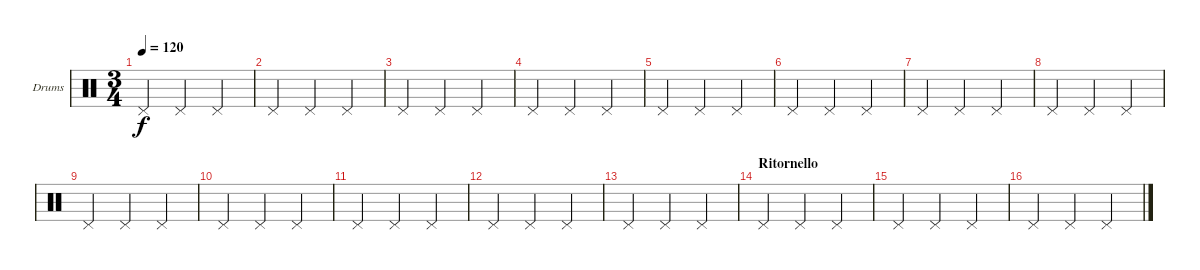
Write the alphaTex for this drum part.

\bracketExtendMode groupsimilarinstruments
\firstSystemTrackNameOrientation horizontal
\otherSystemsTrackNameOrientation horizontal
\track ("Drumkit" "Drums") {instrument percussion}
\staff {score}
\articulation defaults
\ts (3 4)
\tempo 120
\clef neutral
\ks c "Pedal Hi-Hat (hit)".4{dy f} "Pedal Hi-Hat (hit)".4 "Pedal Hi-Hat (hit)".4
|
"Pedal Hi-Hat (hit)".4 "Pedal Hi-Hat (hit)".4 "Pedal Hi-Hat (hit)".4 |
"Pedal Hi-Hat (hit)".4 "Pedal Hi-Hat (hit)".4 "Pedal Hi-Hat (hit)".4 |
"Pedal Hi-Hat (hit)".4 "Pedal Hi-Hat (hit)".4 "Pedal Hi-Hat (hit)".4 |
"Pedal Hi-Hat (hit)".4 "Pedal Hi-Hat (hit)".4 "Pedal Hi-Hat (hit)".4 |
"Pedal Hi-Hat (hit)".4 "Pedal Hi-Hat (hit)".4 "Pedal Hi-Hat (hit)".4 |
"Pedal Hi-Hat (hit)".4 "Pedal Hi-Hat (hit)".4 "Pedal Hi-Hat (hit)".4 |
"Pedal Hi-Hat (hit)".4 "Pedal Hi-Hat (hit)".4 "Pedal Hi-Hat (hit)".4 |
"Pedal Hi-Hat (hit)".4 "Pedal Hi-Hat (hit)".4 "Pedal Hi-Hat (hit)".4 |
"Pedal Hi-Hat (hit)".4 "Pedal Hi-Hat (hit)".4 "Pedal Hi-Hat (hit)".4 |
"Pedal Hi-Hat (hit)".4 "Pedal Hi-Hat (hit)".4 "Pedal Hi-Hat (hit)".4 |
"Pedal Hi-Hat (hit)".4 "Pedal Hi-Hat (hit)".4 "Pedal Hi-Hat (hit)".4 |
"Pedal Hi-Hat (hit)".4 "Pedal Hi-Hat (hit)".4 "Pedal Hi-Hat (hit)".4 |
\section ("" "Ritornello")
"Pedal Hi-Hat (hit)".4 "Pedal Hi-Hat (hit)".4 "Pedal Hi-Hat (hit)".4 |
"Pedal Hi-Hat (hit)".4 "Pedal Hi-Hat (hit)".4 "Pedal Hi-Hat (hit)".4 |
"Pedal Hi-Hat (hit)".4 "Pedal Hi-Hat (hit)".4 "Pedal Hi-Hat (hit)".4
